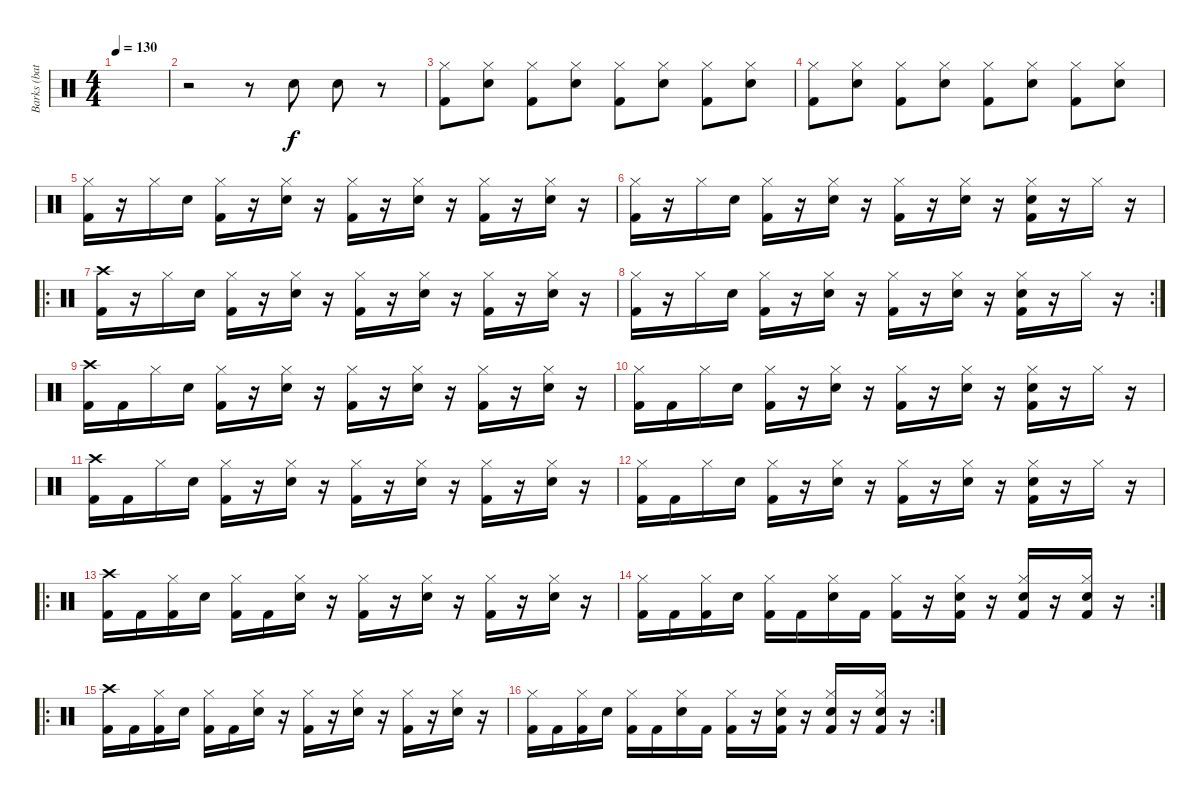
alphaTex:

\track ("Barks (batterie)" "Barks (bat") {instrument percussion}
\staff {score}
\articulation defaults
\ts (4 4)
\tempo 130
\clef neutral
\ks c
|
r.2 r.8 "Electric Snare (hit)".8 "Electric Snare (hit)".8 r.8 |
("Hi-Hat (closed)" "Kick (hit) 2").8 ("Hi-Hat (closed)" "Electric Snare (hit)").8 ("Hi-Hat (closed)" "Kick (hit) 2").8 ("Hi-Hat (closed)" "Electric Snare (hit)").8 ("Hi-Hat (closed)" "Kick (hit) 2").8 ("Hi-Hat (closed)" "Electric Snare (hit)").8 ("Hi-Hat (closed)" "Kick (hit) 2").8 ("Hi-Hat (closed)" "Electric Snare (hit)").8 |
("Hi-Hat (closed)" "Kick (hit) 2").8 ("Hi-Hat (closed)" "Electric Snare (hit)").8 ("Hi-Hat (closed)" "Kick (hit) 2").8 ("Hi-Hat (closed)" "Electric Snare (hit)").8 ("Hi-Hat (closed)" "Kick (hit) 2").8 ("Hi-Hat (closed)" "Electric Snare (hit)").8 ("Hi-Hat (closed)" "Kick (hit) 2").8 ("Hi-Hat (closed)" "Electric Snare (hit)").8 |
("Hi-Hat (closed)" "Kick (hit) 2").16 r.16 "Hi-Hat (closed)".16 "Electric Snare (hit)".16 ("Hi-Hat (closed)" "Kick (hit) 2").16 r.16 ("Hi-Hat (closed)" "Electric Snare (hit)").16 r.16 ("Hi-Hat (closed)" "Kick (hit) 2").16 r.16 ("Hi-Hat (closed)" "Electric Snare (hit)").16 r.16 ("Hi-Hat (closed)" "Kick (hit) 2").16 r.16 ("Hi-Hat (closed)" "Electric Snare (hit)").16 r.16 |
("Hi-Hat (closed)" "Kick (hit) 2").16 r.16 "Hi-Hat (closed)".16 "Electric Snare (hit)".16 ("Hi-Hat (closed)" "Kick (hit) 2").16 r.16 ("Hi-Hat (closed)" "Electric Snare (hit)").16 r.16 ("Hi-Hat (closed)" "Kick (hit) 2").16 r.16 ("Hi-Hat (closed)" "Electric Snare (hit)").16 r.16 ("Hi-Hat (closed)" "Electric Snare (hit)" "Kick (hit) 2").16 r.16 "Hi-Hat (closed)".16 r.16 |
\ro
("Crash high (hit)" "Kick (hit) 2").16 r.16 "Hi-Hat (closed)".16 "Electric Snare (hit)".16 ("Hi-Hat (closed)" "Kick (hit) 2").16 r.16 ("Hi-Hat (closed)" "Electric Snare (hit)").16 r.16 ("Hi-Hat (closed)" "Kick (hit) 2").16 r.16 ("Hi-Hat (closed)" "Electric Snare (hit)").16 r.16 ("Hi-Hat (closed)" "Kick (hit) 2").16 r.16 ("Hi-Hat (closed)" "Electric Snare (hit)").16 r.16 |
\rc 2
("Hi-Hat (closed)" "Kick (hit) 2").16 r.16 "Hi-Hat (closed)".16 "Electric Snare (hit)".16 ("Hi-Hat (closed)" "Kick (hit) 2").16 r.16 ("Hi-Hat (closed)" "Electric Snare (hit)").16 r.16 ("Hi-Hat (closed)" "Kick (hit) 2").16 r.16 ("Hi-Hat (closed)" "Electric Snare (hit)").16 r.16 ("Hi-Hat (closed)" "Electric Snare (hit)" "Kick (hit) 2").16 r.16 "Hi-Hat (closed)".16 r.16 |
("Crash high (hit)" "Kick (hit) 2").16 "Kick (hit) 2".16 "Hi-Hat (closed)".16 "Electric Snare (hit)".16 ("Hi-Hat (closed)" "Kick (hit) 2").16 r.16 ("Hi-Hat (closed)" "Electric Snare (hit)").16 r.16 ("Hi-Hat (closed)" "Kick (hit) 2").16 r.16 ("Hi-Hat (closed)" "Electric Snare (hit)").16 r.16 ("Hi-Hat (closed)" "Kick (hit) 2").16 r.16 ("Hi-Hat (closed)" "Electric Snare (hit)").16 r.16 |
("Hi-Hat (closed)" "Kick (hit) 2").16 "Kick (hit) 2".16 "Hi-Hat (closed)".16 "Electric Snare (hit)".16 ("Hi-Hat (closed)" "Kick (hit) 2").16 r.16 ("Hi-Hat (closed)" "Electric Snare (hit)").16 r.16 ("Hi-Hat (closed)" "Kick (hit) 2").16 r.16 ("Hi-Hat (closed)" "Electric Snare (hit)").16 r.16 ("Hi-Hat (closed)" "Electric Snare (hit)" "Kick (hit) 2").16 r.16 "Hi-Hat (closed)".16 r.16 |
("Crash high (hit)" "Kick (hit) 2").16 "Kick (hit) 2".16 "Hi-Hat (closed)".16 "Electric Snare (hit)".16 ("Hi-Hat (closed)" "Kick (hit) 2").16 r.16 ("Hi-Hat (closed)" "Electric Snare (hit)").16 r.16 ("Hi-Hat (closed)" "Kick (hit) 2").16 r.16 ("Hi-Hat (closed)" "Electric Snare (hit)").16 r.16 ("Hi-Hat (closed)" "Kick (hit) 2").16 r.16 ("Hi-Hat (closed)" "Electric Snare (hit)").16 r.16 |
("Hi-Hat (closed)" "Kick (hit) 2").16 "Kick (hit) 2".16 "Hi-Hat (closed)".16 "Electric Snare (hit)".16 ("Hi-Hat (closed)" "Kick (hit) 2").16 r.16 ("Hi-Hat (closed)" "Electric Snare (hit)").16 r.16 ("Hi-Hat (closed)" "Kick (hit) 2").16 r.16 ("Hi-Hat (closed)" "Electric Snare (hit)").16 r.16 ("Hi-Hat (closed)" "Electric Snare (hit)" "Kick (hit) 2").16 r.16 "Hi-Hat (closed)".16 r.16 |
\ro
("Crash high (hit)" "Kick (hit) 2").16 "Kick (hit) 2".16 ("Hi-Hat (closed)" "Kick (hit) 2").16 "Electric Snare (hit)".16 ("Hi-Hat (closed)" "Kick (hit) 2").16 "Kick (hit) 2".16 ("Hi-Hat (closed)" "Electric Snare (hit)").16 r.16 ("Hi-Hat (closed)" "Kick (hit) 2").16 r.16 ("Hi-Hat (closed)" "Electric Snare (hit)").16 r.16 ("Hi-Hat (closed)" "Kick (hit) 2").16 r.16 ("Hi-Hat (closed)" "Electric Snare (hit)").16 r.16 |
\rc 2
("Hi-Hat (closed)" "Kick (hit) 2").16 "Kick (hit) 2".16 ("Hi-Hat (closed)" "Kick (hit) 2").16 "Electric Snare (hit)".16 ("Hi-Hat (closed)" "Kick (hit) 2").16 "Kick (hit) 2".16 ("Hi-Hat (closed)" "Electric Snare (hit)").16 "Kick (hit) 2".16 ("Hi-Hat (closed)" "Kick (hit) 2").16 r.16 ("Hi-Hat (closed)" "Electric Snare (hit)" "Kick (hit) 2").16 r.16 ("Hi-Hat (closed)" "Electric Snare (hit)" "Kick (hit) 2").16 r.16 ("Hi-Hat (closed)" "Electric Snare (hit)" "Kick (hit) 2").16 r.16 |
\ro
("Crash high (hit)" "Kick (hit) 2").16 "Kick (hit) 2".16 ("Hi-Hat (closed)" "Kick (hit) 2").16 "Electric Snare (hit)".16 ("Hi-Hat (closed)" "Kick (hit) 2").16 "Kick (hit) 2".16 ("Hi-Hat (closed)" "Electric Snare (hit)").16 r.16 ("Hi-Hat (closed)" "Kick (hit) 2").16 r.16 ("Hi-Hat (closed)" "Electric Snare (hit)").16 r.16 ("Hi-Hat (closed)" "Kick (hit) 2").16 r.16 ("Hi-Hat (closed)" "Electric Snare (hit)").16 r.16 |
\rc 2
("Hi-Hat (closed)" "Kick (hit) 2").16 "Kick (hit) 2".16 ("Hi-Hat (closed)" "Kick (hit) 2").16 "Electric Snare (hit)".16 ("Hi-Hat (closed)" "Kick (hit) 2").16 "Kick (hit) 2".16 ("Hi-Hat (closed)" "Electric Snare (hit)").16 "Kick (hit) 2".16 ("Hi-Hat (closed)" "Kick (hit) 2").16 r.16 ("Hi-Hat (closed)" "Electric Snare (hit)" "Kick (hit) 2").16 r.16 ("Hi-Hat (closed)" "Electric Snare (hit)" "Kick (hit) 2").16 r.16 ("Hi-Hat (closed)" "Electric Snare (hit)" "Kick (hit) 2").16 r.16
